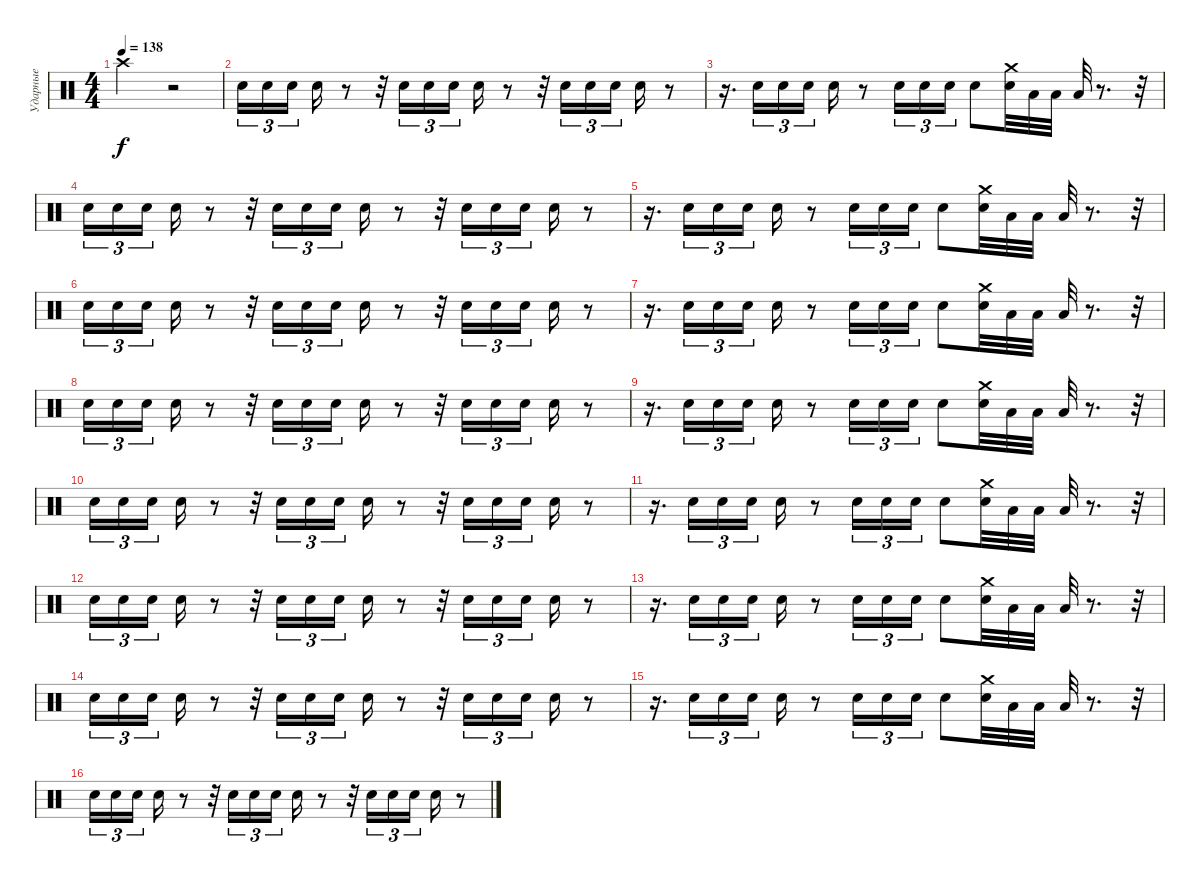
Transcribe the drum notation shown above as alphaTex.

\track ("Ударные" "Ударные") {instrument percussion}
\staff {score}
\articulation defaults
\ts (4 4)
\tempo 138
\clef neutral
\ks c "Crash high (hit)".2{dy f volume 2}
r.2 |
"Electric Snare (hit)".16{tu (3 2) volume 15} "Electric Snare (hit)".16{tu (3 2)} "Electric Snare (hit)".16{tu (3 2) beam splitsecondary} "Electric Snare (hit)".16 r.8 r.32 "Electric Snare (hit)".16{tu (3 2)} "Electric Snare (hit)".16{tu (3 2)} "Electric Snare (hit)".16{tu (3 2) beam splitsecondary} "Electric Snare (hit)".16 r.8 r.32 "Electric Snare (hit)".16{tu (3 2)} "Electric Snare (hit)".16{tu (3 2)} "Electric Snare (hit)".16{tu (3 2)} "Electric Snare (hit)".16 r.8 |
r.16{d} "Electric Snare (hit)".16{tu (3 2)} "Electric Snare (hit)".16{tu (3 2)} "Electric Snare (hit)".16{tu (3 2) beam splitsecondary} "Electric Snare (hit)".16 r.8 "Electric Snare (hit)".16{tu (3 2)} "Electric Snare (hit)".16{tu (3 2)} "Electric Snare (hit)".16{tu (3 2)} "Electric Snare (hit)".8 ("Crash medium (hit)" "Electric Snare (hit)").32 "Low Tom (hit)".32 "Low Tom (hit)".32 "Low Tom (hit)".32 r.8{d} r.32 |
"Electric Snare (hit)".16{tu (3 2)} "Electric Snare (hit)".16{tu (3 2)} "Electric Snare (hit)".16{tu (3 2) beam splitsecondary} "Electric Snare (hit)".16 r.8 r.32 "Electric Snare (hit)".16{tu (3 2)} "Electric Snare (hit)".16{tu (3 2)} "Electric Snare (hit)".16{tu (3 2) beam splitsecondary} "Electric Snare (hit)".16 r.8 r.32 "Electric Snare (hit)".16{tu (3 2)} "Electric Snare (hit)".16{tu (3 2)} "Electric Snare (hit)".16{tu (3 2)} "Electric Snare (hit)".16 r.8 |
r.16{d} "Electric Snare (hit)".16{tu (3 2)} "Electric Snare (hit)".16{tu (3 2)} "Electric Snare (hit)".16{tu (3 2) beam splitsecondary} "Electric Snare (hit)".16 r.8 "Electric Snare (hit)".16{tu (3 2)} "Electric Snare (hit)".16{tu (3 2)} "Electric Snare (hit)".16{tu (3 2)} "Electric Snare (hit)".8 ("Crash medium (hit)" "Electric Snare (hit)").32 "Low Tom (hit)".32 "Low Tom (hit)".32 "Low Tom (hit)".32 r.8{d} r.32 |
"Electric Snare (hit)".16{tu (3 2)} "Electric Snare (hit)".16{tu (3 2)} "Electric Snare (hit)".16{tu (3 2) beam splitsecondary} "Electric Snare (hit)".16 r.8 r.32 "Electric Snare (hit)".16{tu (3 2)} "Electric Snare (hit)".16{tu (3 2)} "Electric Snare (hit)".16{tu (3 2) beam splitsecondary} "Electric Snare (hit)".16 r.8 r.32 "Electric Snare (hit)".16{tu (3 2)} "Electric Snare (hit)".16{tu (3 2)} "Electric Snare (hit)".16{tu (3 2)} "Electric Snare (hit)".16 r.8 |
r.16{d} "Electric Snare (hit)".16{tu (3 2)} "Electric Snare (hit)".16{tu (3 2)} "Electric Snare (hit)".16{tu (3 2) beam splitsecondary} "Electric Snare (hit)".16 r.8 "Electric Snare (hit)".16{tu (3 2)} "Electric Snare (hit)".16{tu (3 2)} "Electric Snare (hit)".16{tu (3 2)} "Electric Snare (hit)".8 ("Crash medium (hit)" "Electric Snare (hit)").32 "Low Tom (hit)".32 "Low Tom (hit)".32 "Low Tom (hit)".32 r.8{d} r.32 |
"Electric Snare (hit)".16{tu (3 2)} "Electric Snare (hit)".16{tu (3 2)} "Electric Snare (hit)".16{tu (3 2) beam splitsecondary} "Electric Snare (hit)".16 r.8 r.32 "Electric Snare (hit)".16{tu (3 2)} "Electric Snare (hit)".16{tu (3 2)} "Electric Snare (hit)".16{tu (3 2) beam splitsecondary} "Electric Snare (hit)".16 r.8 r.32 "Electric Snare (hit)".16{tu (3 2)} "Electric Snare (hit)".16{tu (3 2)} "Electric Snare (hit)".16{tu (3 2)} "Electric Snare (hit)".16 r.8 |
r.16{d} "Electric Snare (hit)".16{tu (3 2)} "Electric Snare (hit)".16{tu (3 2)} "Electric Snare (hit)".16{tu (3 2) beam splitsecondary} "Electric Snare (hit)".16 r.8 "Electric Snare (hit)".16{tu (3 2)} "Electric Snare (hit)".16{tu (3 2)} "Electric Snare (hit)".16{tu (3 2)} "Electric Snare (hit)".8 ("Crash medium (hit)" "Electric Snare (hit)").32 "Low Tom (hit)".32 "Low Tom (hit)".32 "Low Tom (hit)".32 r.8{d} r.32 |
"Electric Snare (hit)".16{tu (3 2)} "Electric Snare (hit)".16{tu (3 2)} "Electric Snare (hit)".16{tu (3 2) beam splitsecondary} "Electric Snare (hit)".16 r.8 r.32 "Electric Snare (hit)".16{tu (3 2)} "Electric Snare (hit)".16{tu (3 2)} "Electric Snare (hit)".16{tu (3 2) beam splitsecondary} "Electric Snare (hit)".16 r.8 r.32 "Electric Snare (hit)".16{tu (3 2)} "Electric Snare (hit)".16{tu (3 2)} "Electric Snare (hit)".16{tu (3 2)} "Electric Snare (hit)".16 r.8 |
r.16{d} "Electric Snare (hit)".16{tu (3 2)} "Electric Snare (hit)".16{tu (3 2)} "Electric Snare (hit)".16{tu (3 2) beam splitsecondary} "Electric Snare (hit)".16 r.8 "Electric Snare (hit)".16{tu (3 2)} "Electric Snare (hit)".16{tu (3 2)} "Electric Snare (hit)".16{tu (3 2)} "Electric Snare (hit)".8 ("Crash medium (hit)" "Electric Snare (hit)").32 "Low Tom (hit)".32 "Low Tom (hit)".32 "Low Tom (hit)".32 r.8{d} r.32 |
"Electric Snare (hit)".16{tu (3 2)} "Electric Snare (hit)".16{tu (3 2)} "Electric Snare (hit)".16{tu (3 2) beam splitsecondary} "Electric Snare (hit)".16 r.8 r.32 "Electric Snare (hit)".16{tu (3 2)} "Electric Snare (hit)".16{tu (3 2)} "Electric Snare (hit)".16{tu (3 2) beam splitsecondary} "Electric Snare (hit)".16 r.8 r.32 "Electric Snare (hit)".16{tu (3 2)} "Electric Snare (hit)".16{tu (3 2)} "Electric Snare (hit)".16{tu (3 2)} "Electric Snare (hit)".16 r.8 |
r.16{d} "Electric Snare (hit)".16{tu (3 2)} "Electric Snare (hit)".16{tu (3 2)} "Electric Snare (hit)".16{tu (3 2) beam splitsecondary} "Electric Snare (hit)".16 r.8 "Electric Snare (hit)".16{tu (3 2)} "Electric Snare (hit)".16{tu (3 2)} "Electric Snare (hit)".16{tu (3 2)} "Electric Snare (hit)".8 ("Crash medium (hit)" "Electric Snare (hit)").32 "Low Tom (hit)".32 "Low Tom (hit)".32 "Low Tom (hit)".32 r.8{d} r.32 |
"Electric Snare (hit)".16{tu (3 2)} "Electric Snare (hit)".16{tu (3 2)} "Electric Snare (hit)".16{tu (3 2) beam splitsecondary} "Electric Snare (hit)".16 r.8 r.32 "Electric Snare (hit)".16{tu (3 2)} "Electric Snare (hit)".16{tu (3 2)} "Electric Snare (hit)".16{tu (3 2) beam splitsecondary} "Electric Snare (hit)".16 r.8 r.32 "Electric Snare (hit)".16{tu (3 2)} "Electric Snare (hit)".16{tu (3 2)} "Electric Snare (hit)".16{tu (3 2)} "Electric Snare (hit)".16 r.8 |
r.16{d} "Electric Snare (hit)".16{tu (3 2)} "Electric Snare (hit)".16{tu (3 2)} "Electric Snare (hit)".16{tu (3 2) beam splitsecondary} "Electric Snare (hit)".16 r.8 "Electric Snare (hit)".16{tu (3 2)} "Electric Snare (hit)".16{tu (3 2)} "Electric Snare (hit)".16{tu (3 2)} "Electric Snare (hit)".8 ("Crash medium (hit)" "Electric Snare (hit)").32 "Low Tom (hit)".32 "Low Tom (hit)".32 "Low Tom (hit)".32 r.8{d} r.32 |
"Electric Snare (hit)".16{tu (3 2)} "Electric Snare (hit)".16{tu (3 2)} "Electric Snare (hit)".16{tu (3 2) beam splitsecondary} "Electric Snare (hit)".16 r.8 r.32 "Electric Snare (hit)".16{tu (3 2)} "Electric Snare (hit)".16{tu (3 2)} "Electric Snare (hit)".16{tu (3 2) beam splitsecondary} "Electric Snare (hit)".16 r.8 r.32 "Electric Snare (hit)".16{tu (3 2)} "Electric Snare (hit)".16{tu (3 2)} "Electric Snare (hit)".16{tu (3 2)} "Electric Snare (hit)".16 r.8
